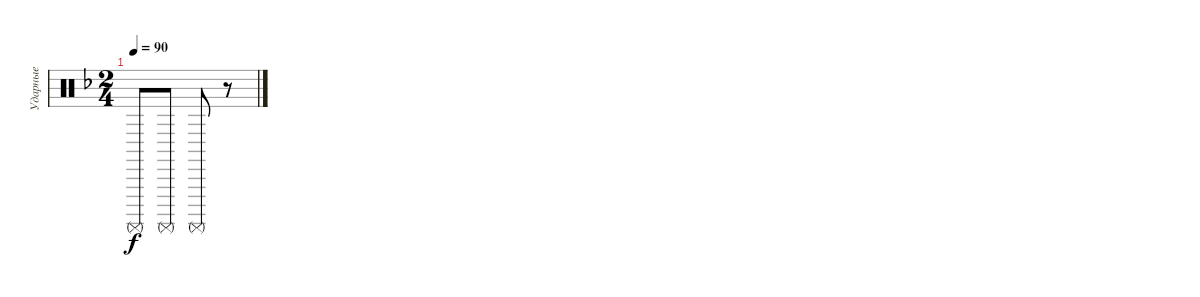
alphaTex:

\track ("Ударные" "Ударные") {instrument percussion}
\staff {score}
\articulation defaults
\ts (2 4)
\tempo 90
\clef neutral
\ks dminor "Surdo (mute)".8{dy f} "Surdo (mute)".8 "Surdo (mute)".8
r.8
